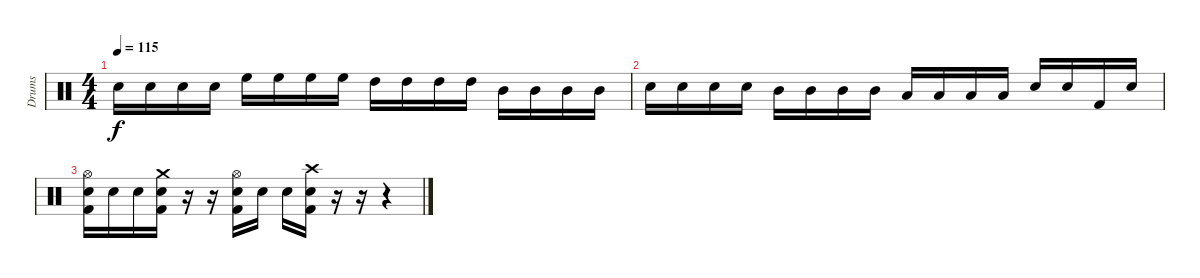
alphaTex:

\track ("Drums" "Drums") {instrument percussion}
\staff {score}
\articulation defaults
\ts (4 4)
\tempo 115
\clef neutral
\ks c "Electric Snare (hit)".16{dy f} "Electric Snare (hit)".16 "Electric Snare (hit)".16 "Electric Snare (hit)".16 "High Floor Tom (hit)".16 "High Floor Tom (hit)".16 "High Floor Tom (hit)".16 "High Floor Tom (hit)".16 "High Tom (hit)".16 "High Tom (hit)".16 "High Tom (hit)".16 "High Tom (hit)".16 "Mid Tom (hit)".16 "Mid Tom (hit)".16 "Mid Tom (hit)".16 "Mid Tom (hit)".16
|
"Electric Snare (hit)".16 "Electric Snare (hit)".16 "Electric Snare (hit)".16 "Electric Snare (hit)".16 "Mid Tom (hit)".16 "Mid Tom (hit)".16 "Mid Tom (hit)".16 "Mid Tom (hit)".16 "Low Tom (hit)".16 "Low Tom (hit)".16 "Low Tom (hit)".16 "Low Tom (hit)".16 "Electric Snare (hit)".16 "Electric Snare (hit)".16 "Kick (hit) 2".16 "Electric Snare (hit)".16 |
("Hi-Hat (open)" "Electric Snare (hit)" "Kick (hit) 2").16 "Electric Snare (hit)".16 "Electric Snare (hit)".16 ("Crash medium (hit)" "Electric Snare (hit)" "Kick (hit) 2").16 r.16 r.16 ("Hi-Hat (open)" "Electric Snare (hit)" "Kick (hit) 2").16 "Electric Snare (hit)".16 "Electric Snare (hit)".16 ("Crash high (hit)" "Electric Snare (hit)" "Kick (hit) 2").16 r.16 r.16 r.4
